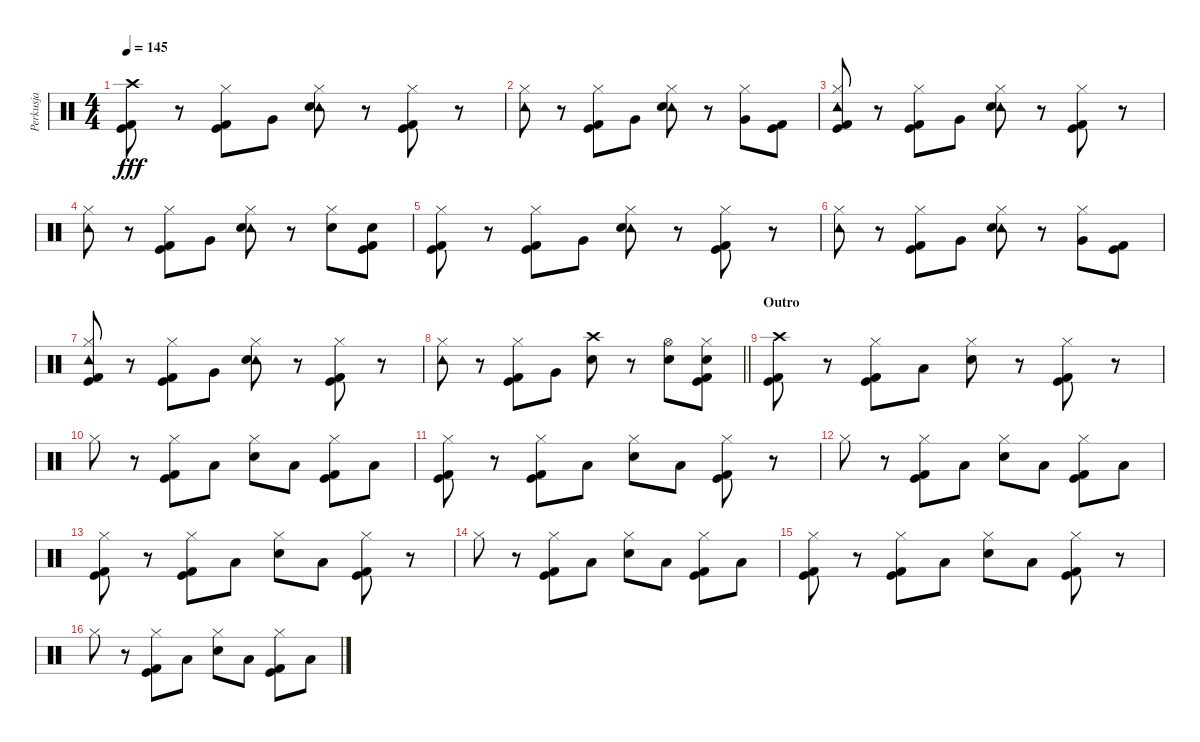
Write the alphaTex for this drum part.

\track ("Perkusja" "Perkusja") {instrument percussion}
\staff {score}
\articulation defaults
\ts (4 4)
\tempo 145
\clef neutral
\ks c
("Crash high (hit)" "Kick (hit)" "Kick (hit) 2").8{dy fff} r.8 ("Hi-Hat (closed)" "Kick (hit)" "Kick (hit) 2").8 "Very Low Tom (hit)".8 ("Hi-Hat (closed)" "Tambourine (hit)" "Electric Snare (hit)").8 r.8 ("Hi-Hat (closed)" "Kick (hit)" "Kick (hit) 2").8 r.8 |
("Hi-Hat (closed)" "Tambourine (hit)").8 r.8 ("Hi-Hat (closed)" "Kick (hit)" "Kick (hit) 2").8 "Very Low Tom (hit)".8 ("Hi-Hat (closed)" "Tambourine (hit)" "Electric Snare (hit)").8 r.8 ("Hi-Hat (closed)" "Very Low Tom (hit)").8 ("Kick (hit)" "Kick (hit) 2").8 |
("Hi-Hat (closed)" "Tambourine (hit)" "Kick (hit)" "Kick (hit) 2").8 r.8 ("Hi-Hat (closed)" "Kick (hit)" "Kick (hit) 2").8 "Very Low Tom (hit)".8 ("Hi-Hat (closed)" "Tambourine (hit)" "Electric Snare (hit)").8 r.8 ("Hi-Hat (closed)" "Kick (hit)" "Kick (hit) 2").8 r.8 |
("Hi-Hat (closed)" "Tambourine (hit)").8 r.8 ("Hi-Hat (closed)" "Kick (hit)" "Kick (hit) 2").8 "Very Low Tom (hit)".8 ("Hi-Hat (closed)" "Tambourine (hit)" "Electric Snare (hit)").8 r.8 ("Hi-Hat (closed)" "Electric Snare (hit)").8 ("Electric Snare (hit)" "Kick (hit)" "Kick (hit) 2").8 |
("Hi-Hat (closed)" "Kick (hit)" "Kick (hit) 2").8 r.8 ("Hi-Hat (closed)" "Kick (hit)" "Kick (hit) 2").8 "Very Low Tom (hit)".8 ("Hi-Hat (closed)" "Tambourine (hit)" "Electric Snare (hit)").8 r.8 ("Hi-Hat (closed)" "Kick (hit)" "Kick (hit) 2").8 r.8 |
("Hi-Hat (closed)" "Tambourine (hit)").8 r.8 ("Hi-Hat (closed)" "Kick (hit)" "Kick (hit) 2").8 "Very Low Tom (hit)".8 ("Hi-Hat (closed)" "Tambourine (hit)" "Electric Snare (hit)").8 r.8 ("Hi-Hat (closed)" "Very Low Tom (hit)").8 ("Kick (hit)" "Kick (hit) 2").8 |
("Hi-Hat (closed)" "Tambourine (hit)" "Kick (hit)" "Kick (hit) 2").8 r.8 ("Hi-Hat (closed)" "Kick (hit)" "Kick (hit) 2").8 "Very Low Tom (hit)".8 ("Hi-Hat (closed)" "Tambourine (hit)" "Electric Snare (hit)").8 r.8 ("Hi-Hat (closed)" "Kick (hit)" "Kick (hit) 2").8 r.8 |
\barLineRight lightlight
("Hi-Hat (closed)" "Tambourine (hit)").8 r.8 ("Hi-Hat (closed)" "Kick (hit)" "Kick (hit) 2").8 "Very Low Tom (hit)".8 ("Crash high (hit)" "Electric Snare (hit)").8 r.8 ("Hi-Hat (open)" "Electric Snare (hit)").8 ("Hi-Hat (closed)" "Electric Snare (hit)" "Kick (hit)" "Kick (hit) 2").8 |
\section ("" "Outro")
("Crash high (hit)" "Kick (hit)" "Kick (hit) 2").8 r.8 ("Hi-Hat (closed)" "Kick (hit)" "Kick (hit) 2").8 "Low Floor Tom (hit)".8 ("Hi-Hat (closed)" "Electric Snare (hit)").8 r.8 ("Hi-Hat (closed)" "Kick (hit)" "Kick (hit) 2").8 r.8 |
"Hi-Hat (closed)".8 r.8 ("Hi-Hat (closed)" "Kick (hit)" "Kick (hit) 2").8 "Low Floor Tom (hit)".8 ("Hi-Hat (closed)" "Electric Snare (hit)").8 "Low Floor Tom (hit)".8 ("Hi-Hat (closed)" "Kick (hit)" "Kick (hit) 2").8 "Low Floor Tom (hit)".8 |
("Hi-Hat (closed)" "Kick (hit)" "Kick (hit) 2").8 r.8 ("Hi-Hat (closed)" "Kick (hit)" "Kick (hit) 2").8 "Low Floor Tom (hit)".8 ("Hi-Hat (closed)" "Electric Snare (hit)").8 "Low Floor Tom (hit)".8 ("Hi-Hat (closed)" "Kick (hit)" "Kick (hit) 2").8 r.8 |
"Hi-Hat (closed)".8 r.8 ("Hi-Hat (closed)" "Kick (hit)" "Kick (hit) 2").8 "Low Floor Tom (hit)".8 ("Hi-Hat (closed)" "Electric Snare (hit)").8 "Low Floor Tom (hit)".8 ("Hi-Hat (closed)" "Kick (hit)" "Kick (hit) 2").8 "Low Floor Tom (hit)".8 |
("Hi-Hat (closed)" "Kick (hit)" "Kick (hit) 2").8 r.8 ("Hi-Hat (closed)" "Kick (hit)" "Kick (hit) 2").8 "Low Floor Tom (hit)".8 ("Hi-Hat (closed)" "Electric Snare (hit)").8 "Low Floor Tom (hit)".8 ("Hi-Hat (closed)" "Kick (hit)" "Kick (hit) 2").8 r.8 |
"Hi-Hat (closed)".8 r.8 ("Hi-Hat (closed)" "Kick (hit)" "Kick (hit) 2").8 "Low Floor Tom (hit)".8 ("Hi-Hat (closed)" "Electric Snare (hit)").8 "Low Floor Tom (hit)".8 ("Hi-Hat (closed)" "Kick (hit)" "Kick (hit) 2").8 "Low Floor Tom (hit)".8 |
("Hi-Hat (closed)" "Kick (hit)" "Kick (hit) 2").8{volume 0} r.8 ("Hi-Hat (closed)" "Kick (hit)" "Kick (hit) 2").8 "Low Floor Tom (hit)".8 ("Hi-Hat (closed)" "Electric Snare (hit)").8 "Low Floor Tom (hit)".8 ("Hi-Hat (closed)" "Kick (hit)" "Kick (hit) 2").8 r.8 |
"Hi-Hat (closed)".8 r.8 ("Hi-Hat (closed)" "Kick (hit)" "Kick (hit) 2").8 "Low Floor Tom (hit)".8 ("Hi-Hat (closed)" "Electric Snare (hit)").8 "Low Floor Tom (hit)".8 ("Hi-Hat (closed)" "Kick (hit)" "Kick (hit) 2").8 "Low Floor Tom (hit)".8
